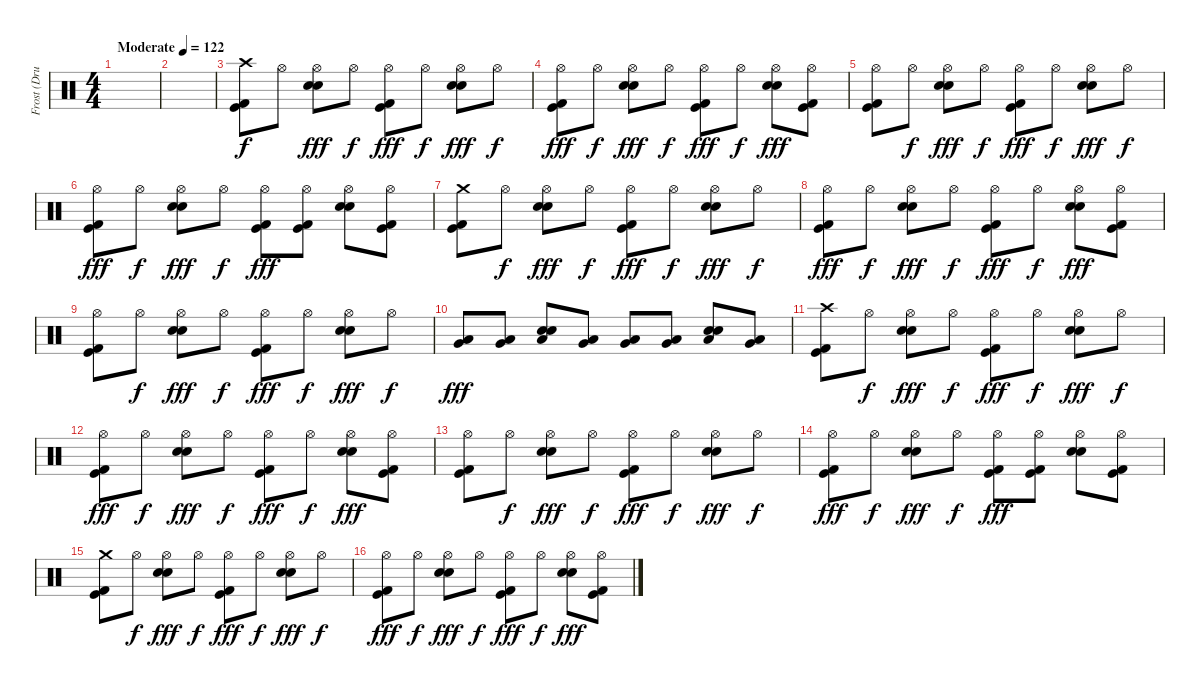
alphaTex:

\track ("Frost (Drums)" "Frost (Dru") {instrument percussion}
\staff {score}
\articulation defaults
\ts (4 4)
\tempo (122 "Moderate")
\clef neutral
\ks c
|
|
("Crash high (hit)" "Kick (hit)" "Kick (hit) 2").8{volume 11} "Hi-Hat (open)".8{dy f} ("Hi-Hat (open)" "Snare (hit) 2" "Electric Snare (hit)").8{dy fff} "Hi-Hat (open)".8{dy f} ("Hi-Hat (open)" "Kick (hit)" "Kick (hit) 2").8{dy fff} "Hi-Hat (open)".8{dy f} ("Hi-Hat (open)" "Snare (hit) 2" "Electric Snare (hit)").8{dy fff} "Hi-Hat (open)".8{dy f} |
("Hi-Hat (open)" "Kick (hit)" "Kick (hit) 2").8{dy fff} "Hi-Hat (open)".8{dy f} ("Hi-Hat (open)" "Snare (hit) 2" "Electric Snare (hit)").8{dy fff} "Hi-Hat (open)".8{dy f} ("Hi-Hat (open)" "Kick (hit)" "Kick (hit) 2").8{dy fff} "Hi-Hat (open)".8{dy f} ("Hi-Hat (open)" "Snare (hit) 2" "Electric Snare (hit)").8{dy fff} ("Hi-Hat (open)" "Kick (hit)" "Kick (hit) 2").8 |
("Hi-Hat (open)" "Kick (hit)" "Kick (hit) 2").8 "Hi-Hat (open)".8{dy f} ("Hi-Hat (open)" "Snare (hit) 2" "Electric Snare (hit)").8{dy fff} "Hi-Hat (open)".8{dy f} ("Hi-Hat (open)" "Kick (hit)" "Kick (hit) 2").8{dy fff} "Hi-Hat (open)".8{dy f} ("Hi-Hat (open)" "Snare (hit) 2" "Electric Snare (hit)").8{dy fff} "Hi-Hat (open)".8{dy f} |
("Hi-Hat (open)" "Kick (hit)" "Kick (hit) 2").8{dy fff} "Hi-Hat (open)".8{dy f} ("Hi-Hat (open)" "Snare (hit) 2" "Electric Snare (hit)").8{dy fff} "Hi-Hat (open)".8{dy f} ("Hi-Hat (open)" "Kick (hit)" "Kick (hit) 2").8{dy fff} ("Hi-Hat (open)" "Kick (hit)" "Kick (hit) 2").8 ("Hi-Hat (open)" "Snare (hit) 2" "Electric Snare (hit)").8 ("Hi-Hat (open)" "Kick (hit)" "Kick (hit) 2").8 |
("Crash medium (hit)" "Kick (hit)" "Kick (hit) 2").8 "Hi-Hat (open)".8{dy f} ("Hi-Hat (open)" "Snare (hit) 2" "Electric Snare (hit)").8{dy fff} "Hi-Hat (open)".8{dy f} ("Hi-Hat (open)" "Kick (hit)" "Kick (hit) 2").8{dy fff} "Hi-Hat (open)".8{dy f} ("Hi-Hat (open)" "Snare (hit) 2" "Electric Snare (hit)").8{dy fff} "Hi-Hat (open)".8{dy f} |
("Hi-Hat (open)" "Kick (hit)" "Kick (hit) 2").8{dy fff} "Hi-Hat (open)".8{dy f} ("Hi-Hat (open)" "Snare (hit) 2" "Electric Snare (hit)").8{dy fff} "Hi-Hat (open)".8{dy f} ("Hi-Hat (open)" "Kick (hit)" "Kick (hit) 2").8{dy fff} "Hi-Hat (open)".8{dy f} ("Hi-Hat (open)" "Snare (hit) 2" "Electric Snare (hit)").8{dy fff} ("Hi-Hat (open)" "Kick (hit)" "Kick (hit) 2").8 |
("Hi-Hat (open)" "Kick (hit)" "Kick (hit) 2").8 "Hi-Hat (open)".8{dy f} ("Hi-Hat (open)" "Snare (hit) 2" "Electric Snare (hit)").8{dy fff} "Hi-Hat (open)".8{dy f} ("Hi-Hat (open)" "Kick (hit)" "Kick (hit) 2").8{dy fff} "Hi-Hat (open)".8{dy f} ("Hi-Hat (open)" "Snare (hit) 2" "Electric Snare (hit)").8{dy fff} "Hi-Hat (open)".8{dy f} |
("Very Low Tom (hit)" "Low Floor Tom (hit)").8{dy fff} ("Very Low Tom (hit)" "Low Floor Tom (hit)").8 ("Low Floor Tom (hit)" "Electric Snare (hit)" "Snare (hit) 2").8 ("Very Low Tom (hit)" "Low Floor Tom (hit)").8 ("Very Low Tom (hit)" "Low Floor Tom (hit)").8 ("Very Low Tom (hit)" "Low Floor Tom (hit)").8 ("Low Floor Tom (hit)" "Electric Snare (hit)" "Snare (hit) 2").8 ("Very Low Tom (hit)" "Low Floor Tom (hit)").8 |
("Crash high (hit)" "Kick (hit)" "Kick (hit) 2").8 "Hi-Hat (open)".8{dy f} ("Hi-Hat (open)" "Snare (hit) 2" "Electric Snare (hit)").8{dy fff} "Hi-Hat (open)".8{dy f} ("Hi-Hat (open)" "Kick (hit)" "Kick (hit) 2").8{dy fff} "Hi-Hat (open)".8{dy f} ("Hi-Hat (open)" "Snare (hit) 2" "Electric Snare (hit)").8{dy fff} "Hi-Hat (open)".8{dy f} |
("Hi-Hat (open)" "Kick (hit)" "Kick (hit) 2").8{dy fff} "Hi-Hat (open)".8{dy f} ("Hi-Hat (open)" "Snare (hit) 2" "Electric Snare (hit)").8{dy fff} "Hi-Hat (open)".8{dy f} ("Hi-Hat (open)" "Kick (hit)" "Kick (hit) 2").8{dy fff} "Hi-Hat (open)".8{dy f} ("Hi-Hat (open)" "Snare (hit) 2" "Electric Snare (hit)").8{dy fff} ("Hi-Hat (open)" "Kick (hit)" "Kick (hit) 2").8 |
("Hi-Hat (open)" "Kick (hit)" "Kick (hit) 2").8 "Hi-Hat (open)".8{dy f} ("Hi-Hat (open)" "Snare (hit) 2" "Electric Snare (hit)").8{dy fff} "Hi-Hat (open)".8{dy f} ("Hi-Hat (open)" "Kick (hit)" "Kick (hit) 2").8{dy fff} "Hi-Hat (open)".8{dy f} ("Hi-Hat (open)" "Snare (hit) 2" "Electric Snare (hit)").8{dy fff} "Hi-Hat (open)".8{dy f} |
("Hi-Hat (open)" "Kick (hit)" "Kick (hit) 2").8{dy fff} "Hi-Hat (open)".8{dy f} ("Hi-Hat (open)" "Snare (hit) 2" "Electric Snare (hit)").8{dy fff} "Hi-Hat (open)".8{dy f} ("Hi-Hat (open)" "Kick (hit)" "Kick (hit) 2").8{dy fff} ("Hi-Hat (open)" "Kick (hit)" "Kick (hit) 2").8 ("Hi-Hat (open)" "Snare (hit) 2" "Electric Snare (hit)").8 ("Hi-Hat (open)" "Kick (hit)" "Kick (hit) 2").8 |
("Crash medium (hit)" "Kick (hit)" "Kick (hit) 2").8 "Hi-Hat (open)".8{dy f} ("Hi-Hat (open)" "Snare (hit) 2" "Electric Snare (hit)").8{dy fff} "Hi-Hat (open)".8{dy f} ("Hi-Hat (open)" "Kick (hit)" "Kick (hit) 2").8{dy fff} "Hi-Hat (open)".8{dy f} ("Hi-Hat (open)" "Snare (hit) 2" "Electric Snare (hit)").8{dy fff} "Hi-Hat (open)".8{dy f} |
("Hi-Hat (open)" "Kick (hit)" "Kick (hit) 2").8{dy fff} "Hi-Hat (open)".8{dy f} ("Hi-Hat (open)" "Snare (hit) 2" "Electric Snare (hit)").8{dy fff} "Hi-Hat (open)".8{dy f} ("Hi-Hat (open)" "Kick (hit)" "Kick (hit) 2").8{dy fff} "Hi-Hat (open)".8{dy f} ("Hi-Hat (open)" "Snare (hit) 2" "Electric Snare (hit)").8{dy fff} ("Hi-Hat (open)" "Kick (hit)" "Kick (hit) 2").8
